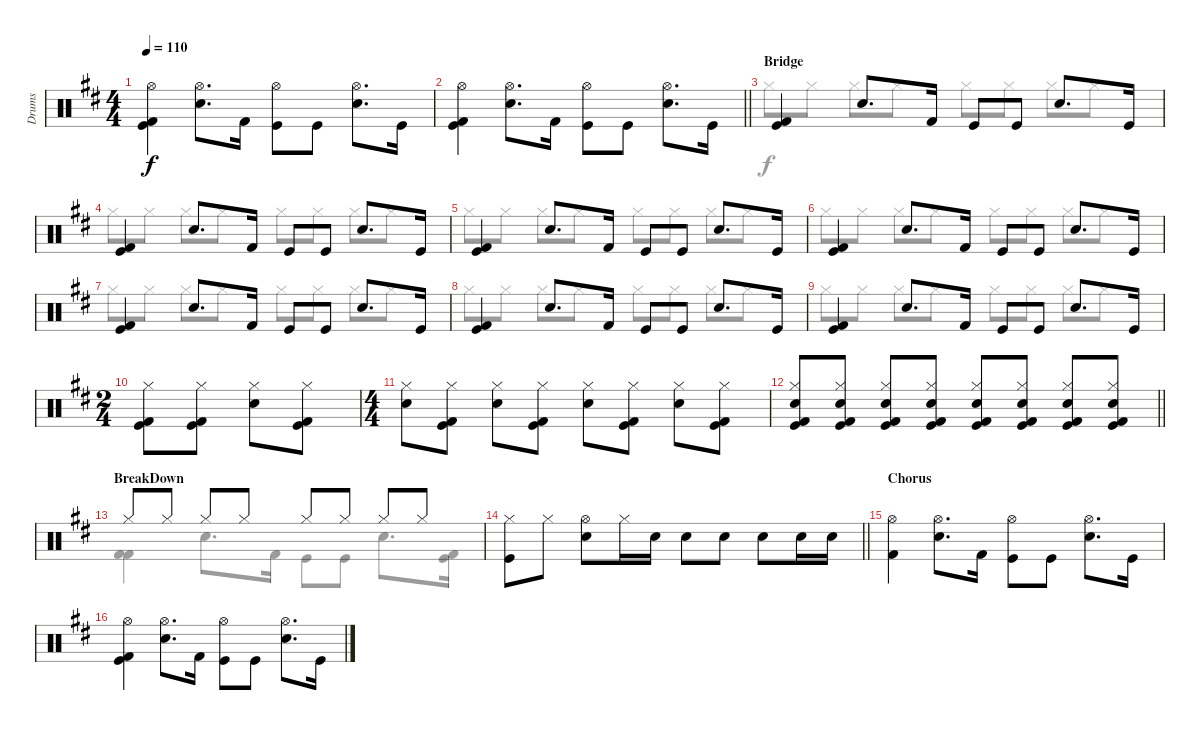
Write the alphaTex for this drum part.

\track ("Drums" "Drums") {instrument percussion}
\staff {score}
\articulation defaults
\voice
\ts (4 4)
\tempo 110
\clef neutral
\ks d
("Kick (hit) 2" "Kick (hit)" "Hi-Hat (open)").4{dy f} ("Snare (hit) 2" "Hi-Hat (open)").8{d} "Kick (hit) 2".16 ("Kick (hit)" "Hi-Hat (open)").8 "Kick (hit)".8 ("Snare (hit) 2" "Hi-Hat (open)").8{d} "Kick (hit)".16 |
\barLineRight lightlight
("Kick (hit) 2" "Kick (hit)" "Hi-Hat (open)").4 ("Snare (hit) 2" "Hi-Hat (open)").8{d} "Kick (hit) 2".16 ("Kick (hit)" "Hi-Hat (open)").8 "Kick (hit)".8 ("Snare (hit) 2" "Hi-Hat (open)").8{d} "Kick (hit)".16 |
\section ("" "Bridge")
("Kick (hit) 2" "Kick (hit)").4 "Snare (hit) 2".8{d} "Kick (hit) 2".16 "Kick (hit)".8 "Kick (hit)".8 "Snare (hit) 2".8{d} "Kick (hit)".16 |
("Kick (hit) 2" "Kick (hit)").4 "Snare (hit) 2".8{d} "Kick (hit) 2".16 "Kick (hit)".8 "Kick (hit)".8 "Snare (hit) 2".8{d} "Kick (hit)".16 |
("Kick (hit) 2" "Kick (hit)").4 "Snare (hit) 2".8{d} "Kick (hit) 2".16 "Kick (hit)".8 "Kick (hit)".8 "Snare (hit) 2".8{d} "Kick (hit)".16 |
("Kick (hit) 2" "Kick (hit)").4 "Snare (hit) 2".8{d} "Kick (hit) 2".16 "Kick (hit)".8 "Kick (hit)".8 "Snare (hit) 2".8{d} "Kick (hit)".16 |
("Kick (hit) 2" "Kick (hit)").4 "Snare (hit) 2".8{d} "Kick (hit) 2".16 "Kick (hit)".8 "Kick (hit)".8 "Snare (hit) 2".8{d} "Kick (hit)".16 |
("Kick (hit) 2" "Kick (hit)").4 "Snare (hit) 2".8{d} "Kick (hit) 2".16 "Kick (hit)".8 "Kick (hit)".8 "Snare (hit) 2".8{d} "Kick (hit)".16 |
("Kick (hit) 2" "Kick (hit)").4 "Snare (hit) 2".8{d} "Kick (hit) 2".16 "Kick (hit)".8 "Kick (hit)".8 "Snare (hit) 2".8{d} "Kick (hit)".16 |
\ts (2 4)
("Hi-Hat (closed)" "Kick (hit)" "Kick (hit) 2").8 ("Hi-Hat (closed)" "Kick (hit)" "Kick (hit) 2").8 ("Hi-Hat (closed)" "Electric Snare (hit)").8 ("Hi-Hat (closed)" "Kick (hit)" "Kick (hit) 2").8 |
\ts (4 4)
("Hi-Hat (closed)" "Electric Snare (hit)").8 ("Hi-Hat (closed)" "Kick (hit)" "Kick (hit) 2").8 ("Hi-Hat (closed)" "Electric Snare (hit)").8 ("Hi-Hat (closed)" "Kick (hit)" "Kick (hit) 2").8 ("Hi-Hat (closed)" "Electric Snare (hit)").8 ("Hi-Hat (closed)" "Kick (hit)" "Kick (hit) 2").8 ("Hi-Hat (closed)" "Electric Snare (hit)").8 ("Hi-Hat (closed)" "Kick (hit)" "Kick (hit) 2").8 |
\barLineRight lightlight
("Hi-Hat (closed)" "Electric Snare (hit)" "Kick (hit)" "Kick (hit) 2").8 ("Hi-Hat (closed)" "Electric Snare (hit)" "Kick (hit)" "Kick (hit) 2").8 ("Hi-Hat (closed)" "Electric Snare (hit)" "Kick (hit)" "Kick (hit) 2").8 ("Hi-Hat (closed)" "Electric Snare (hit)" "Kick (hit)" "Kick (hit) 2").8 ("Hi-Hat (closed)" "Electric Snare (hit)" "Kick (hit)" "Kick (hit) 2").8 ("Hi-Hat (closed)" "Electric Snare (hit)" "Kick (hit)" "Kick (hit) 2").8 ("Hi-Hat (closed)" "Electric Snare (hit)" "Kick (hit)" "Kick (hit) 2").8 ("Hi-Hat (closed)" "Electric Snare (hit)" "Kick (hit)" "Kick (hit) 2").8 |
\section ("" "BreakDown")
"Hi-Hat (closed)".8 "Hi-Hat (closed)".8 "Hi-Hat (closed)".8 "Hi-Hat (closed)".8 "Hi-Hat (closed)".8 "Hi-Hat (closed)".8 "Hi-Hat (closed)".8 "Hi-Hat (closed)".8 |
\barLineRight lightlight
("Hi-Hat (closed)" "Kick (hit)").8 "Hi-Hat (closed)".8 ("Hi-Hat (open)" "Snare (hit) 2").8 "Hi-Hat (closed)".16 "Snare (hit) 2".16 "Snare (hit) 2".8 "Snare (hit) 2".8 "Snare (hit) 2".8 "Snare (hit) 2".16 "Snare (hit) 2".16 |
\section ("" "Chorus")
("Kick (hit) 2" "Hi-Hat (open)").4 ("Snare (hit) 2" "Hi-Hat (open)").8{d} "Kick (hit) 2".16 ("Kick (hit)" "Hi-Hat (open)").8 "Kick (hit)".8 ("Snare (hit) 2" "Hi-Hat (open)").8{d} "Kick (hit)".16 |
("Kick (hit) 2" "Kick (hit)" "Hi-Hat (open)").4 ("Snare (hit) 2" "Hi-Hat (open)").8{d} "Kick (hit) 2".16 ("Kick (hit)" "Hi-Hat (open)").8 "Kick (hit)".8 ("Snare (hit) 2" "Hi-Hat (open)").8{d} "Kick (hit)".16
\voice
\clef neutral
\ottava regular
\simile none
\ks d
|
\barLineRight lightlight
|
"Hi-Hat (closed)".8 "Hi-Hat (closed)".8 "Hi-Hat (closed)".8 "Hi-Hat (closed)".8 "Hi-Hat (closed)".8 "Hi-Hat (closed)".8 "Hi-Hat (closed)".8 "Hi-Hat (closed)".8 |
"Hi-Hat (closed)".8 "Hi-Hat (closed)".8 "Hi-Hat (closed)".8 "Hi-Hat (closed)".8 "Hi-Hat (closed)".8 "Hi-Hat (closed)".8 "Hi-Hat (closed)".8 "Hi-Hat (closed)".8 |
"Hi-Hat (closed)".8 "Hi-Hat (closed)".8 "Hi-Hat (closed)".8 "Hi-Hat (closed)".8 "Hi-Hat (closed)".8 "Hi-Hat (closed)".8 "Hi-Hat (closed)".8 "Hi-Hat (closed)".8 |
"Hi-Hat (closed)".8 "Hi-Hat (closed)".8 "Hi-Hat (closed)".8 "Hi-Hat (closed)".8 "Hi-Hat (closed)".8 "Hi-Hat (closed)".8 "Hi-Hat (closed)".8 "Hi-Hat (closed)".8 |
"Hi-Hat (closed)".8 "Hi-Hat (closed)".8 "Hi-Hat (closed)".8 "Hi-Hat (closed)".8 "Hi-Hat (closed)".8 "Hi-Hat (closed)".8 "Hi-Hat (closed)".8 "Hi-Hat (closed)".8 |
"Hi-Hat (closed)".8 "Hi-Hat (closed)".8 "Hi-Hat (closed)".8 "Hi-Hat (closed)".8 "Hi-Hat (closed)".8 "Hi-Hat (closed)".8 "Hi-Hat (closed)".8 "Hi-Hat (closed)".8 |
"Hi-Hat (closed)".8 "Hi-Hat (closed)".8 "Hi-Hat (closed)".8 "Hi-Hat (closed)".8 "Hi-Hat (closed)".8 "Hi-Hat (closed)".8 "Hi-Hat (closed)".8 "Hi-Hat (closed)".8 |
|
|
\barLineRight lightlight
|
("Kick (hit) 2" "Kick (hit) 2").4 "Snare (hit) 2".8{d} "Kick (hit) 2".16 "Kick (hit)".8 "Kick (hit)".8 "Snare (hit) 2".8{d} ("Kick (hit)" "Kick (hit) 2").16 |
\barLineRight lightlight
|
|
